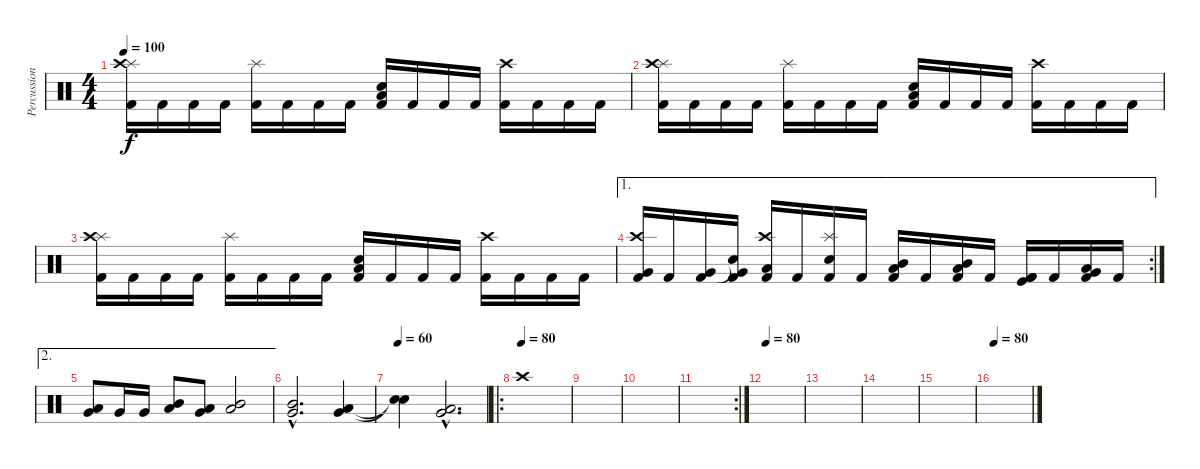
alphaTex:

\track ("Percussions" "Percussion") {instrument percussion}
\staff {score}
\articulation defaults
\ts (4 4)
\tempo 100
\clef neutral
\ks c
("Kick (hit) 2" "Splash (hit)" "Crash high (hit)").16{dy f} "Kick (hit) 2".16 "Kick (hit) 2".16 "Kick (hit) 2".16 ("Kick (hit) 2" "Splash (hit)").16 "Kick (hit) 2".16 "Kick (hit) 2".16 "Kick (hit) 2".16 ("Kick (hit) 2" "Electric Snare (hit)" "Low Tom (hit)").16 "Kick (hit) 2".16 "Kick (hit) 2".16 "Kick (hit) 2".16 ("Kick (hit) 2" "Crash high (hit)").16 "Kick (hit) 2".16 "Kick (hit) 2".16 "Kick (hit) 2".16 |
("Kick (hit) 2" "Splash (hit)" "Crash high (hit)").16 "Kick (hit) 2".16 "Kick (hit) 2".16 "Kick (hit) 2".16 ("Kick (hit) 2" "Splash (hit)").16 "Kick (hit) 2".16 "Kick (hit) 2".16 "Kick (hit) 2".16 ("Kick (hit) 2" "Electric Snare (hit)" "Low Tom (hit)").16 "Kick (hit) 2".16 "Kick (hit) 2".16 "Kick (hit) 2".16 ("Kick (hit) 2" "Crash high (hit)").16 "Kick (hit) 2".16 "Kick (hit) 2".16 "Kick (hit) 2".16 |
("Kick (hit) 2" "Splash (hit)" "Crash high (hit)").16 "Kick (hit) 2".16 "Kick (hit) 2".16 "Kick (hit) 2".16 ("Kick (hit) 2" "Splash (hit)").16 "Kick (hit) 2".16 "Kick (hit) 2".16 "Kick (hit) 2".16 ("Kick (hit) 2" "Electric Snare (hit)" "Low Tom (hit)").16 "Kick (hit) 2".16 "Kick (hit) 2".16 "Kick (hit) 2".16 ("Kick (hit) 2" "Crash high (hit)").16 "Kick (hit) 2".16 "Kick (hit) 2".16 "Kick (hit) 2".16 |
\ae 1
\rc 2
("Very Low Tom (hit)" "Crash high (hit)" "Kick (hit) 2").16 "Kick (hit) 2".16 ("Very Low Tom (hit)" "Kick (hit) 2").16 ("Very Low Tom (hit)" "Snare (hit)"{t} "Kick (hit) 2").16 ("Crash high (hit)" "Low Tom (hit)" "Kick (hit) 2").16 "Kick (hit) 2".16 ("Splash (hit)" "Electric Snare (hit)" "Kick (hit) 2").16 "Kick (hit) 2".16 ("Mid Tom (hit)" "Low Floor Tom (hit)" "Kick (hit) 2").16 "Kick (hit) 2".16 ("Mid Tom (hit)" "Low Tom (hit)" "Kick (hit) 2").16 "Kick (hit) 2".16 ("Kick (hit) 2" "Kick (hit)" "Kick (hit) 2").16 "Kick (hit) 2".16 ("Very Low Tom (hit)" "Low Floor Tom (hit)" "Kick (hit) 2").16 "Kick (hit) 2".16 |
\ae 2
("Low Floor Tom (hit)" "Very Low Tom (hit)").8 "Very Low Tom (hit)".16 "Very Low Tom (hit)".16 ("Mid Tom (hit)" "Low Tom (hit)").8 ("Very Low Tom (hit)" "Low Floor Tom (hit)").8 ("Mid Tom (hit)" "Low Tom (hit)").2 |
("Mid Tom (hit)"{hac} "Very Low Tom (hit)"{hac}).2{d} ("Low Tom (hit)" "Very Low Tom (hit)").4 |
\tempo 60
("Snare (hit)"{t} "Snare (hit)"{t}).4 ("Low Floor Tom (hit)"{hac} "Very Low Tom (hit)"{hac}).2{d} |
\ro
\tempo (80)
"Crash high (hit)".1 |
|
|
\rc 2
|
\tempo 80
|
|
|
|
\tempo 80
